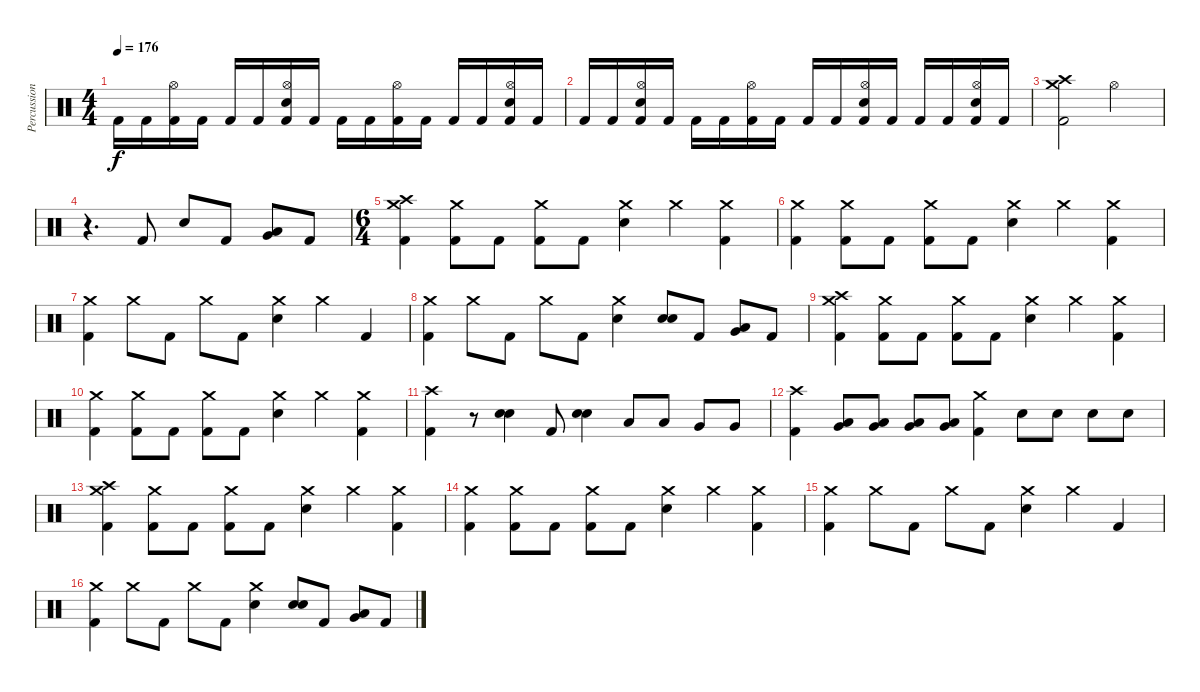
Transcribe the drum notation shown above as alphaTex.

\track ("Percussion" "Percussion") {instrument percussion}
\staff {score}
\articulation defaults
\ts (4 4)
\tempo 176
\clef neutral
\ks c "Kick (hit) 2".16{dy f} "Kick (hit) 2".16
("Hi-Hat (open)" "Kick (hit) 2").16 "Kick (hit) 2".16 "Kick (hit) 2".16 "Kick (hit) 2".16 ("Hi-Hat (open)" "Snare (hit) 2" "Kick (hit) 2").16 "Kick (hit) 2".16 "Kick (hit) 2".16 "Kick (hit) 2".16 ("Hi-Hat (open)" "Kick (hit) 2").16 "Kick (hit) 2".16 "Kick (hit) 2".16 "Kick (hit) 2".16 ("Hi-Hat (open)" "Snare (hit) 2" "Kick (hit) 2").16 "Kick (hit) 2".16 |
"Kick (hit) 2".16 "Kick (hit) 2".16 ("Hi-Hat (open)" "Snare (hit) 2" "Kick (hit) 2").16 "Kick (hit) 2".16 "Kick (hit) 2".16 "Kick (hit) 2".16 ("Hi-Hat (open)" "Kick (hit) 2").16 "Kick (hit) 2".16 "Kick (hit) 2".16 "Kick (hit) 2".16 ("Hi-Hat (open)" "Snare (hit) 2" "Kick (hit) 2").16 "Kick (hit) 2".16 "Kick (hit) 2".16 "Kick (hit) 2".16 ("Hi-Hat (open)" "Snare (hit) 2" "Kick (hit) 2").16 "Kick (hit) 2".16 |
("Crash high (hit)" "Crash medium (hit)" "Kick (hit) 2").2 "Hi-Hat (open)".2 |
r.4{d} "Kick (hit) 2".8 "Snare (hit) 2".8 "Kick (hit) 2".8 ("Very Low Tom (hit)" "Low Tom (hit)").8 "Kick (hit) 2".8 |
\ts (6 4)
("Crash high (hit)" "Crash medium (hit)" "Kick (hit) 2").4 ("Crash medium (hit)" "Kick (hit) 2").8 "Kick (hit) 2".8 ("Crash medium (hit)" "Kick (hit) 2").8 "Kick (hit) 2".8 ("Crash medium (hit)" "Snare (hit) 2").4 "Crash medium (hit)".4 ("Crash medium (hit)" "Kick (hit) 2").4 |
("Crash medium (hit)" "Kick (hit) 2").4 ("Crash medium (hit)" "Kick (hit) 2").8 "Kick (hit) 2".8 ("Crash medium (hit)" "Kick (hit) 2").8 "Kick (hit) 2".8 ("Crash medium (hit)" "Snare (hit) 2").4 "Crash medium (hit)".4 ("Crash medium (hit)" "Kick (hit) 2").4 |
("Crash medium (hit)" "Kick (hit) 2").4 "Crash medium (hit)".8 "Kick (hit) 2".8 "Crash medium (hit)".8 "Kick (hit) 2".8 ("Crash medium (hit)" "Snare (hit) 2").4 "Crash medium (hit)".4 "Kick (hit) 2".4 |
("Crash medium (hit)" "Kick (hit) 2").4 "Crash medium (hit)".8 "Kick (hit) 2".8 "Crash medium (hit)".8 "Kick (hit) 2".8 ("Crash medium (hit)" "Snare (hit) 2").4 ("Snare (hit) 2" "Snare (hit) 2").8 "Kick (hit) 2".8 ("Very Low Tom (hit)" "Low Tom (hit)").8 "Kick (hit) 2".8 |
("Crash high (hit)" "Crash medium (hit)" "Kick (hit) 2").4 ("Crash medium (hit)" "Kick (hit) 2").8 "Kick (hit) 2".8 ("Crash medium (hit)" "Kick (hit) 2").8 "Kick (hit) 2".8 ("Crash medium (hit)" "Snare (hit) 2").4 "Crash medium (hit)".4 ("Crash medium (hit)" "Kick (hit) 2").4 |
("Crash medium (hit)" "Kick (hit) 2").4 ("Crash medium (hit)" "Kick (hit) 2").8 "Kick (hit) 2".8 ("Crash medium (hit)" "Kick (hit) 2").8 "Kick (hit) 2".8 ("Crash medium (hit)" "Snare (hit) 2").4 "Crash medium (hit)".4 ("Crash medium (hit)" "Kick (hit) 2").4 |
("Crash high (hit)" "Kick (hit) 2").4 r.8 ("Snare (hit) 2" "Snare (hit) 2").4 "Kick (hit) 2".8 ("Snare (hit) 2" "Snare (hit) 2").4 "Low Tom (hit)".8 "Low Tom (hit)".8 "Very Low Tom (hit)".8 "Very Low Tom (hit)".8 |
("Crash high (hit)" "Kick (hit) 2").4 ("Low Floor Tom (hit)" "Very Low Tom (hit)").8 ("Low Floor Tom (hit)" "Very Low Tom (hit)").8 ("Low Floor Tom (hit)" "Very Low Tom (hit)").8 ("Low Floor Tom (hit)" "Very Low Tom (hit)").8 ("Crash medium (hit)" "Kick (hit) 2").4 "Snare (hit) 2".8 "Snare (hit) 2".8 "Snare (hit) 2".8 "Snare (hit) 2".8 |
("Crash high (hit)" "Crash medium (hit)" "Kick (hit) 2").4 ("Crash medium (hit)" "Kick (hit) 2").8 "Kick (hit) 2".8 ("Crash medium (hit)" "Kick (hit) 2").8 "Kick (hit) 2".8 ("Crash medium (hit)" "Snare (hit) 2").4 "Crash medium (hit)".4 ("Crash medium (hit)" "Kick (hit) 2").4 |
("Crash medium (hit)" "Kick (hit) 2").4 ("Crash medium (hit)" "Kick (hit) 2").8 "Kick (hit) 2".8 ("Crash medium (hit)" "Kick (hit) 2").8 "Kick (hit) 2".8 ("Crash medium (hit)" "Snare (hit) 2").4 "Crash medium (hit)".4 ("Crash medium (hit)" "Kick (hit) 2").4 |
("Crash medium (hit)" "Kick (hit) 2").4 "Crash medium (hit)".8 "Kick (hit) 2".8 "Crash medium (hit)".8 "Kick (hit) 2".8 ("Crash medium (hit)" "Snare (hit) 2").4 "Crash medium (hit)".4 "Kick (hit) 2".4 |
("Crash medium (hit)" "Kick (hit) 2").4 "Crash medium (hit)".8 "Kick (hit) 2".8 "Crash medium (hit)".8 "Kick (hit) 2".8 ("Crash medium (hit)" "Snare (hit) 2").4 ("Snare (hit) 2" "Snare (hit) 2").8 "Kick (hit) 2".8 ("Very Low Tom (hit)" "Low Tom (hit)").8 "Kick (hit) 2".8
